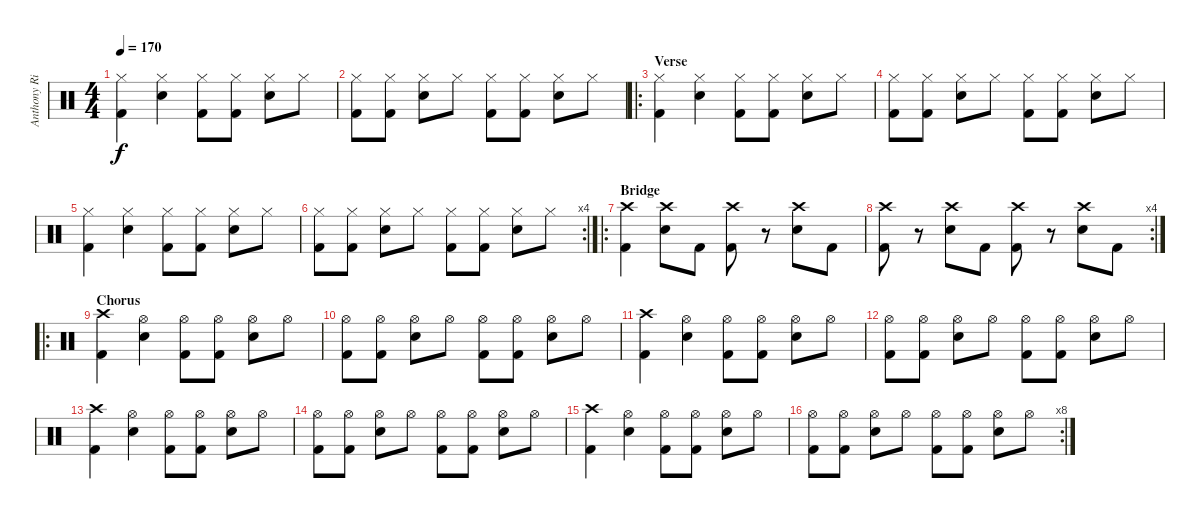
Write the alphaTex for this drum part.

\track ("Anthony Richards" "Anthony Ri") {instrument percussion}
\staff {score}
\articulation defaults
\ts (4 4)
\tempo 170
\clef neutral
\ks c
("Hi-Hat (closed)" "Kick (hit) 2").4{dy f} ("Hi-Hat (closed)" "Snare (hit) 2").4 ("Hi-Hat (closed)" "Kick (hit) 2").8 ("Hi-Hat (closed)" "Kick (hit) 2").8 ("Hi-Hat (closed)" "Snare (hit) 2").8 "Hi-Hat (closed)".8 |
("Hi-Hat (closed)" "Kick (hit) 2").8 ("Hi-Hat (closed)" "Kick (hit) 2").8 ("Hi-Hat (closed)" "Snare (hit) 2").8 "Hi-Hat (closed)".8 ("Hi-Hat (closed)" "Kick (hit) 2").8 ("Hi-Hat (closed)" "Kick (hit) 2").8 ("Hi-Hat (closed)" "Snare (hit) 2").8 "Hi-Hat (closed)".8 |
\ro
\section ("" "Verse")
("Hi-Hat (closed)" "Kick (hit) 2").4 ("Hi-Hat (closed)" "Snare (hit) 2").4 ("Hi-Hat (closed)" "Kick (hit) 2").8 ("Hi-Hat (closed)" "Kick (hit) 2").8 ("Hi-Hat (closed)" "Snare (hit) 2").8 "Hi-Hat (closed)".8 |
("Hi-Hat (closed)" "Kick (hit) 2").8 ("Hi-Hat (closed)" "Kick (hit) 2").8 ("Hi-Hat (closed)" "Snare (hit) 2").8 "Hi-Hat (closed)".8 ("Hi-Hat (closed)" "Kick (hit) 2").8 ("Hi-Hat (closed)" "Kick (hit) 2").8 ("Hi-Hat (closed)" "Snare (hit) 2").8 "Hi-Hat (closed)".8 |
("Hi-Hat (closed)" "Kick (hit) 2").4 ("Hi-Hat (closed)" "Snare (hit) 2").4 ("Hi-Hat (closed)" "Kick (hit) 2").8 ("Hi-Hat (closed)" "Kick (hit) 2").8 ("Hi-Hat (closed)" "Snare (hit) 2").8 "Hi-Hat (closed)".8 |
\rc 4
("Hi-Hat (closed)" "Kick (hit) 2").8 ("Hi-Hat (closed)" "Kick (hit) 2").8 ("Hi-Hat (closed)" "Snare (hit) 2").8 "Hi-Hat (closed)".8 ("Hi-Hat (closed)" "Kick (hit) 2").8 ("Hi-Hat (closed)" "Kick (hit) 2").8 ("Hi-Hat (closed)" "Snare (hit) 2").8 "Hi-Hat (closed)".8 |
\ro
\section ("" "Bridge")
("Crash high (hit)" "Kick (hit) 2").4 ("Crash high (hit)" "Snare (hit) 2").8 "Kick (hit) 2".8 ("Crash high (hit)" "Kick (hit) 2").8 r.8 ("Crash high (hit)" "Snare (hit) 2").8 "Kick (hit) 2".8 |
\rc 4
("Crash high (hit)" "Kick (hit) 2").8 r.8 ("Crash high (hit)" "Snare (hit) 2").8 "Kick (hit) 2".8 ("Crash high (hit)" "Kick (hit) 2").8 r.8 ("Crash high (hit)" "Snare (hit) 2").8 "Kick (hit) 2".8 |
\ro
\section ("" "Chorus")
("Crash high (hit)" "Kick (hit) 2").4 ("Hi-Hat (open)" "Snare (hit) 2").4 ("Hi-Hat (open)" "Kick (hit) 2").8 ("Hi-Hat (open)" "Kick (hit) 2").8 ("Hi-Hat (open)" "Snare (hit) 2").8 "Hi-Hat (open)".8 |
("Hi-Hat (open)" "Kick (hit) 2").8 ("Hi-Hat (open)" "Kick (hit) 2").8 ("Hi-Hat (open)" "Snare (hit) 2").8 "Hi-Hat (open)".8 ("Hi-Hat (open)" "Kick (hit) 2").8 ("Hi-Hat (open)" "Kick (hit) 2").8 ("Hi-Hat (open)" "Snare (hit) 2").8 "Hi-Hat (open)".8 |
("Crash high (hit)" "Kick (hit) 2").4 ("Hi-Hat (open)" "Snare (hit) 2").4 ("Hi-Hat (open)" "Kick (hit) 2").8 ("Hi-Hat (open)" "Kick (hit) 2").8 ("Hi-Hat (open)" "Snare (hit) 2").8 "Hi-Hat (open)".8 |
("Hi-Hat (open)" "Kick (hit) 2").8 ("Hi-Hat (open)" "Kick (hit) 2").8 ("Hi-Hat (open)" "Snare (hit) 2").8 "Hi-Hat (open)".8 ("Hi-Hat (open)" "Kick (hit) 2").8 ("Hi-Hat (open)" "Kick (hit) 2").8 ("Hi-Hat (open)" "Snare (hit) 2").8 "Hi-Hat (open)".8 |
("Crash high (hit)" "Kick (hit) 2").4 ("Hi-Hat (open)" "Snare (hit) 2").4 ("Hi-Hat (open)" "Kick (hit) 2").8 ("Hi-Hat (open)" "Kick (hit) 2").8 ("Hi-Hat (open)" "Snare (hit) 2").8 "Hi-Hat (open)".8 |
("Hi-Hat (open)" "Kick (hit) 2").8 ("Hi-Hat (open)" "Kick (hit) 2").8 ("Hi-Hat (open)" "Snare (hit) 2").8 "Hi-Hat (open)".8 ("Hi-Hat (open)" "Kick (hit) 2").8 ("Hi-Hat (open)" "Kick (hit) 2").8 ("Hi-Hat (open)" "Snare (hit) 2").8 "Hi-Hat (open)".8 |
("Crash high (hit)" "Kick (hit) 2").4 ("Hi-Hat (open)" "Snare (hit) 2").4 ("Hi-Hat (open)" "Kick (hit) 2").8 ("Hi-Hat (open)" "Kick (hit) 2").8 ("Hi-Hat (open)" "Snare (hit) 2").8 "Hi-Hat (open)".8 |
\rc 8
("Hi-Hat (open)" "Kick (hit) 2").8 ("Hi-Hat (open)" "Kick (hit) 2").8 ("Hi-Hat (open)" "Snare (hit) 2").8 "Hi-Hat (open)".8 ("Hi-Hat (open)" "Kick (hit) 2").8 ("Hi-Hat (open)" "Kick (hit) 2").8 ("Hi-Hat (open)" "Snare (hit) 2").8 "Hi-Hat (open)".8
